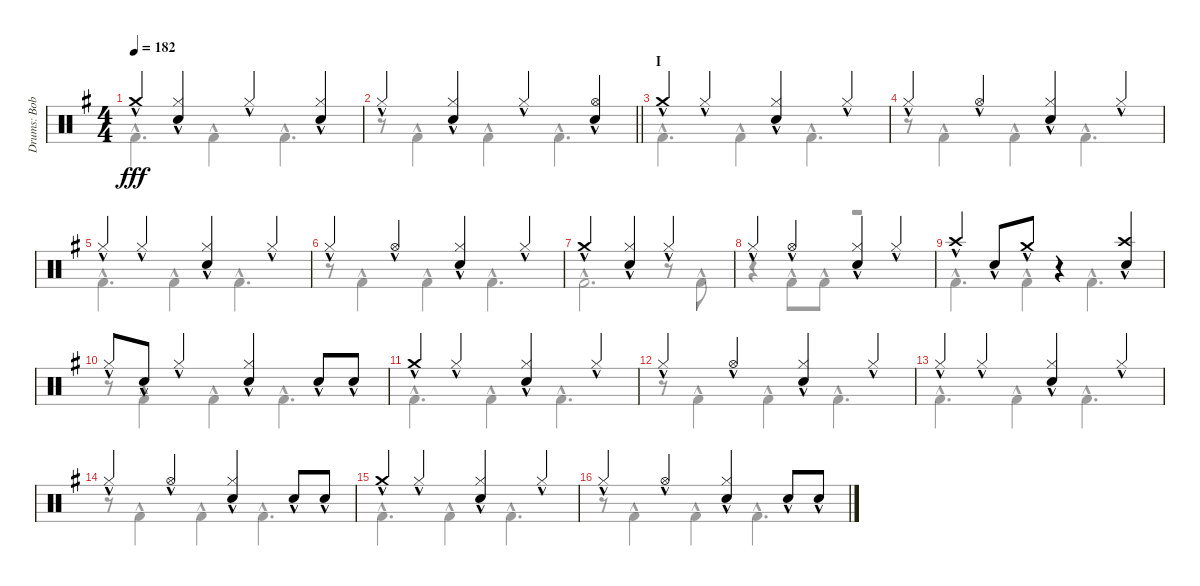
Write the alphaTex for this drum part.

\track ("Drums: Bobby" "Drums: Bob") {instrument percussion}
\staff {score}
\articulation defaults
\voice
\ts (4 4)
\tempo 182
\clef neutral
\ks g "Crash medium (hit)"{hac}.4{dy fff}
("Hi-Hat (closed)"{hac} "Snare (hit) 2"{hac}).4 "Hi-Hat (closed)"{hac}.4 ("Hi-Hat (closed)"{hac} "Snare (hit) 2"{hac}).4 |
\barLineRight lightlight "Hi-Hat (closed)"{hac}.4
("Hi-Hat (closed)"{hac} "Snare (hit) 2"{hac}).4 "Hi-Hat (closed)"{hac}.4 ("Hi-Hat (open)"{hac} "Snare (hit) 2"{hac}).4 |
\section ("" "I")
"Crash medium (hit)"{hac}.4 "Hi-Hat (closed)"{hac}.4 ("Hi-Hat (closed)"{hac} "Snare (hit) 2"{hac}).4 "Hi-Hat (closed)"{hac}.4 |
"Hi-Hat (closed)"{hac}.4 "Hi-Hat (open)"{hac}.4 ("Hi-Hat (closed)"{hac} "Snare (hit) 2"{hac}).4 "Hi-Hat (closed)"{hac}.4 |
"Hi-Hat (closed)"{hac}.4 "Hi-Hat (closed)"{hac}.4 ("Hi-Hat (closed)"{hac} "Snare (hit) 2"{hac}).4 "Hi-Hat (closed)"{hac}.4 |
"Hi-Hat (closed)"{hac}.4 "Hi-Hat (open)"{hac}.4 ("Hi-Hat (closed)"{hac} "Snare (hit) 2"{hac}).4 "Hi-Hat (closed)"{hac}.4 |
"Crash medium (hit)"{hac}.2 ("Hi-Hat (closed)"{hac} "Snare (hit) 2"{hac}).4 "Hi-Hat (closed)"{hac}.4 |
"Hi-Hat (closed)"{hac}.4 "Hi-Hat (open)"{hac}.4 ("Hi-Hat (closed)"{hac} "Snare (hit) 2"{hac}).4 "Hi-Hat (closed)"{hac}.4 |
"Crash high (hit)"{hac}.4 "Snare (hit) 2"{hac}.8 "Crash medium (hit)"{hac}.8 r.4 ("Crash high (hit)"{hac} "Snare (hit) 2"{hac}).4 |
"Hi-Hat (closed)"{hac}.8 "Snare (hit) 2"{hac}.8 "Hi-Hat (closed)"{hac}.4 ("Hi-Hat (closed)"{hac} "Snare (hit) 2"{hac}).4 "Electric Snare (hit)"{hac}.8 "Electric Snare (hit)"{hac}.8 |
"Crash medium (hit)"{hac}.4 "Hi-Hat (closed)"{hac}.4 ("Hi-Hat (closed)"{hac} "Snare (hit) 2"{hac}).4 "Hi-Hat (closed)"{hac}.4 |
"Hi-Hat (closed)"{hac}.4 "Hi-Hat (open)"{hac}.4 ("Hi-Hat (closed)"{hac} "Snare (hit) 2"{hac}).4 "Hi-Hat (closed)"{hac}.4 |
"Hi-Hat (closed)"{hac}.4 "Hi-Hat (closed)"{hac}.4 ("Hi-Hat (closed)"{hac} "Snare (hit) 2"{hac}).4 "Hi-Hat (closed)"{hac}.4 |
"Hi-Hat (closed)"{hac}.4 "Hi-Hat (open)"{hac}.4 ("Hi-Hat (closed)"{hac} "Snare (hit) 2"{hac}).4 "Electric Snare (hit)"{hac}.8 "Electric Snare (hit)"{hac}.8 |
"Crash medium (hit)"{hac}.4 "Hi-Hat (closed)"{hac}.4 ("Hi-Hat (closed)"{hac} "Snare (hit) 2"{hac}).4 "Hi-Hat (closed)"{hac}.4 |
"Hi-Hat (closed)"{hac}.4 "Hi-Hat (open)"{hac}.4 ("Hi-Hat (closed)"{hac} "Snare (hit) 2"{hac}).4 "Electric Snare (hit)"{hac}.8 "Electric Snare (hit)"{hac}.8
\voice
\clef neutral
\ottava regular
\simile none
\ks g "Kick (hit) 2"{hac}.4{d dy fff} "Kick (hit) 2"{hac}.4 "Kick (hit) 2"{hac}.4{d}
|
\barLineRight lightlight
r.8 "Kick (hit) 2"{hac}.4 "Kick (hit) 2"{hac}.4 "Kick (hit) 2"{hac}.4{d} |
"Kick (hit) 2"{hac}.4{d} "Kick (hit) 2"{hac}.4 "Kick (hit) 2"{hac}.4{d} |
r.8 "Kick (hit) 2"{hac}.4 "Kick (hit) 2"{hac}.4 "Kick (hit) 2"{hac}.4{d} |
"Kick (hit) 2"{hac}.4{d} "Kick (hit) 2"{hac}.4 "Kick (hit) 2"{hac}.4{d} |
r.8 "Kick (hit) 2"{hac}.4 "Kick (hit) 2"{hac}.4 "Kick (hit) 2"{hac}.4{d} |
"Kick (hit) 2"{hac}.2{d} r.8 "Kick (hit) 2"{hac}.8 |
r.4 "Kick (hit) 2"{hac}.8 "Kick (hit) 2"{hac}.8 r.2 |
"Kick (hit) 2"{hac}.4{d} "Kick (hit) 2"{hac}.4 "Kick (hit) 2"{hac}.4{d} |
r.8 "Kick (hit) 2"{hac}.4 "Kick (hit) 2"{hac}.4 "Kick (hit) 2"{hac}.4{d} |
"Kick (hit) 2"{hac}.4{d} "Kick (hit) 2"{hac}.4 "Kick (hit) 2"{hac}.4{d} |
r.8 "Kick (hit) 2"{hac}.4 "Kick (hit) 2"{hac}.4 "Kick (hit) 2"{hac}.4{d} |
"Kick (hit) 2"{hac}.4{d} "Kick (hit) 2"{hac}.4 "Kick (hit) 2"{hac}.4{d} |
r.8 "Kick (hit) 2"{hac}.4 "Kick (hit) 2"{hac}.4 "Kick (hit) 2"{hac}.4{d} |
"Kick (hit) 2"{hac}.4{d} "Kick (hit) 2"{hac}.4 "Kick (hit) 2"{hac}.4{d} |
r.8 "Kick (hit) 2"{hac}.4 "Kick (hit) 2"{hac}.4 "Kick (hit) 2"{hac}.4{d}
